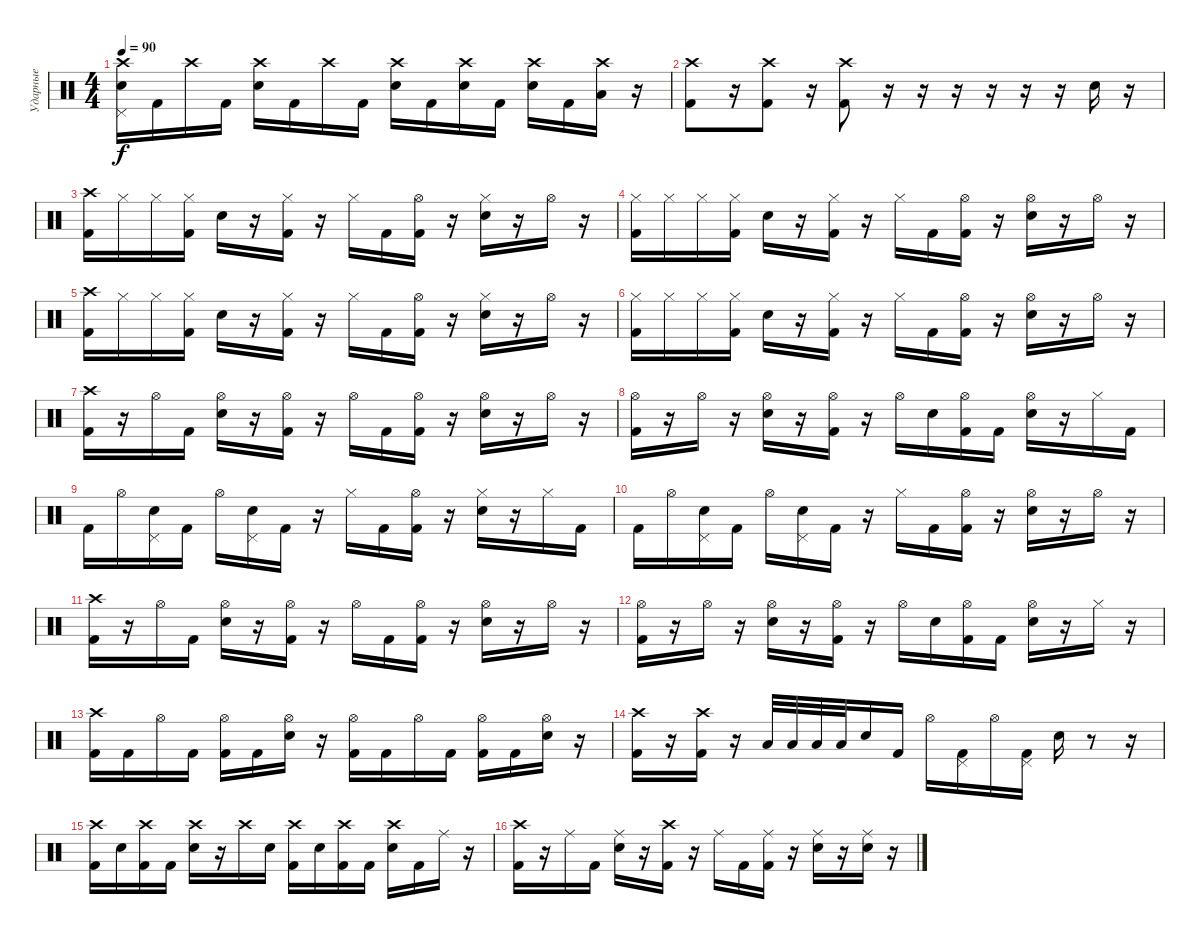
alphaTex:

\track ("Ударные" "Ударные") {instrument percussion}
\staff {score}
\articulation defaults
\ts (4 4)
\tempo 90
\clef neutral
\ks c
("Crash high (hit)" "Pedal Hi-Hat (hit)" "Electric Snare (hit)").16{dy f} "Kick (hit) 2".16 "Crash high (hit)".16 "Kick (hit) 2".16 ("Crash high (hit)" "Electric Snare (hit)").16 "Kick (hit) 2".16 "Crash high (hit)".16 "Kick (hit) 2".16 ("Crash high (hit)" "Electric Snare (hit)").16 "Kick (hit) 2".16 ("Crash high (hit)" "Electric Snare (hit)").16 "Kick (hit) 2".16 ("Crash high (hit)" "Electric Snare (hit)").16 "Kick (hit) 2".16 ("Crash high (hit)" "Low Floor Tom (hit)").16 r.16 |
("Crash high (hit)" "Kick (hit) 2").8 r.16 ("Crash high (hit)" "Kick (hit) 2").8 r.16 ("Crash high (hit)" "Kick (hit) 2").8 r.16 r.16 r.16 r.16 r.16 r.16 "Electric Snare (hit)".16 r.16 |
("Crash high (hit)" "Kick (hit) 2").16 "Hi-Hat (closed)".16 "Hi-Hat (closed)".16 ("Hi-Hat (closed)" "Kick (hit) 2").16 "Electric Snare (hit)".16 r.16 ("Hi-Hat (closed)" "Kick (hit) 2").16 r.16 "Hi-Hat (closed)".16 "Kick (hit) 2".16 ("Hi-Hat (open)" "Kick (hit) 2").16 r.16 ("Hi-Hat (closed)" "Electric Snare (hit)").16 r.16 "Hi-Hat (open)".16 r.16 |
("Hi-Hat (closed)" "Kick (hit) 2").16 "Hi-Hat (closed)".16 "Hi-Hat (closed)".16 ("Hi-Hat (closed)" "Kick (hit) 2").16 "Electric Snare (hit)".16 r.16 ("Hi-Hat (closed)" "Kick (hit) 2").16 r.16 "Hi-Hat (closed)".16 "Kick (hit) 2".16 ("Hi-Hat (open)" "Kick (hit) 2").16 r.16 ("Hi-Hat (open)" "Electric Snare (hit)").16 r.16 "Hi-Hat (open)".16 r.16 |
("Crash high (hit)" "Kick (hit) 2").16 "Hi-Hat (closed)".16 "Hi-Hat (closed)".16 ("Hi-Hat (closed)" "Kick (hit) 2").16 "Electric Snare (hit)".16 r.16 ("Hi-Hat (closed)" "Kick (hit) 2").16 r.16 "Hi-Hat (closed)".16 "Kick (hit) 2".16 ("Hi-Hat (open)" "Kick (hit) 2").16 r.16 ("Hi-Hat (closed)" "Electric Snare (hit)").16 r.16 "Hi-Hat (open)".16 r.16 |
("Hi-Hat (closed)" "Kick (hit) 2").16 "Hi-Hat (closed)".16 "Hi-Hat (closed)".16 ("Hi-Hat (closed)" "Kick (hit) 2").16 "Electric Snare (hit)".16 r.16 ("Hi-Hat (closed)" "Kick (hit) 2").16 r.16 "Hi-Hat (closed)".16 "Kick (hit) 2".16 ("Hi-Hat (open)" "Kick (hit) 2").16 r.16 ("Hi-Hat (open)" "Electric Snare (hit)").16 r.16 "Hi-Hat (open)".16 r.16 |
("Crash high (hit)" "Kick (hit) 2").16 r.16 "Hi-Hat (open)".16 "Kick (hit) 2".16 ("Hi-Hat (open)" "Electric Snare (hit)").16 r.16 ("Hi-Hat (open)" "Kick (hit) 2").16 r.16 "Hi-Hat (open)".16 "Kick (hit) 2".16 ("Hi-Hat (open)" "Kick (hit) 2").16 r.16 ("Hi-Hat (open)" "Electric Snare (hit)").16 r.16 "Hi-Hat (open)".16 r.16 |
("Hi-Hat (open)" "Kick (hit) 2").16 r.16 "Hi-Hat (open)".16 r.16 ("Hi-Hat (open)" "Electric Snare (hit)").16 r.16 ("Hi-Hat (open)" "Kick (hit) 2").16 r.16 "Hi-Hat (open)".16 "Electric Snare (hit)".16 ("Hi-Hat (open)" "Kick (hit) 2").16 "Kick (hit) 2".16 ("Hi-Hat (open)" "Electric Snare (hit)").16 r.16 "Hi-Hat (closed)".16 "Kick (hit) 2".16 |
"Kick (hit) 2".16 "Hi-Hat (open)".16 ("Pedal Hi-Hat (hit)" "Electric Snare (hit)").16 "Kick (hit) 2".16 "Hi-Hat (open)".16 ("Pedal Hi-Hat (hit)" "Electric Snare (hit)").16 "Kick (hit) 2".16 r.16 "Hi-Hat (closed)".16 "Kick (hit) 2".16 ("Hi-Hat (open)" "Kick (hit) 2").16 r.16 ("Hi-Hat (closed)" "Electric Snare (hit)").16 r.16 "Hi-Hat (closed)".16 "Kick (hit) 2".16 |
"Kick (hit) 2".16 "Hi-Hat (open)".16 ("Pedal Hi-Hat (hit)" "Electric Snare (hit)").16 "Kick (hit) 2".16 "Hi-Hat (open)".16 ("Pedal Hi-Hat (hit)" "Electric Snare (hit)").16 "Kick (hit) 2".16 r.16 "Hi-Hat (closed)".16 "Kick (hit) 2".16 ("Hi-Hat (open)" "Kick (hit) 2").16 r.16 ("Hi-Hat (open)" "Electric Snare (hit)").16 r.16 "Hi-Hat (open)".16 r.16 |
("Crash high (hit)" "Kick (hit) 2").16 r.16 "Hi-Hat (open)".16 "Kick (hit) 2".16 ("Hi-Hat (open)" "Electric Snare (hit)").16 r.16 ("Hi-Hat (open)" "Kick (hit) 2").16 r.16 "Hi-Hat (open)".16 "Kick (hit) 2".16 ("Hi-Hat (open)" "Kick (hit) 2").16 r.16 ("Hi-Hat (open)" "Electric Snare (hit)").16 r.16 "Hi-Hat (open)".16 r.16 |
("Hi-Hat (open)" "Kick (hit) 2").16 r.16 "Hi-Hat (open)".16 r.16 ("Hi-Hat (open)" "Electric Snare (hit)").16 r.16 ("Hi-Hat (open)" "Kick (hit) 2").16 r.16 "Hi-Hat (open)".16 "Electric Snare (hit)".16 ("Hi-Hat (open)" "Kick (hit) 2").16 "Kick (hit) 2".16 ("Hi-Hat (open)" "Electric Snare (hit)").16 r.16 "Hi-Hat (closed)".16 r.16 |
("Crash high (hit)" "Kick (hit) 2").16 "Kick (hit) 2".16 "Hi-Hat (open)".16 "Kick (hit) 2".16 ("Hi-Hat (open)" "Kick (hit) 2").16 "Kick (hit) 2".16 ("Hi-Hat (open)" "Electric Snare (hit)").16 r.16 ("Hi-Hat (open)" "Kick (hit) 2").16 "Kick (hit) 2".16 "Hi-Hat (open)".16 "Kick (hit) 2".16 ("Hi-Hat (open)" "Kick (hit) 2").16 "Kick (hit) 2".16 ("Hi-Hat (open)" "Electric Snare (hit)").16 r.16 |
("Crash high (hit)" "Kick (hit) 2").16 r.16 ("Crash high (hit)" "Kick (hit) 2").16 r.16 "Low Tom (hit)".32 "Low Tom (hit)".32 "Low Tom (hit)".32 "Low Tom (hit)".32 "Electric Snare (hit)".16 "Kick (hit) 2".16 "Hi-Hat (open)".16 ("Pedal Hi-Hat (hit)" "Kick (hit) 2").16 "Hi-Hat (open)".16 ("Pedal Hi-Hat (hit)" "Kick (hit) 2").16 "Electric Snare (hit)".16 r.8 r.16 |
("Crash high (hit)" "Kick (hit) 2").16 "Electric Snare (hit)".16 ("Crash high (hit)" "Kick (hit) 2").16 "Kick (hit) 2".16 ("Crash high (hit)" "Electric Snare (hit)").16 r.16 "Crash high (hit)".16 "Electric Snare (hit)".16 ("Crash high (hit)" "Kick (hit) 2").16 "Electric Snare (hit)".16 ("Crash high (hit)" "Kick (hit) 2").16 "Kick (hit) 2".16 ("Crash high (hit)" "Electric Snare (hit)").16 "Kick (hit) 2".16 "Ride (middle)".16 r.16 |
("Crash high (hit)" "Kick (hit) 2").16 r.16 "Ride (middle)".16 "Kick (hit) 2".16 ("Ride (middle)" "Electric Snare (hit)").16 r.16 ("Crash high (hit)" "Kick (hit) 2").16 r.16 "Ride (middle)".16 "Kick (hit) 2".16 ("Ride (middle)" "Kick (hit) 2").16 r.16 ("Ride (middle)" "Electric Snare (hit)").16 r.16 ("Ride (middle)" "Electric Snare (hit)").16 r.16
